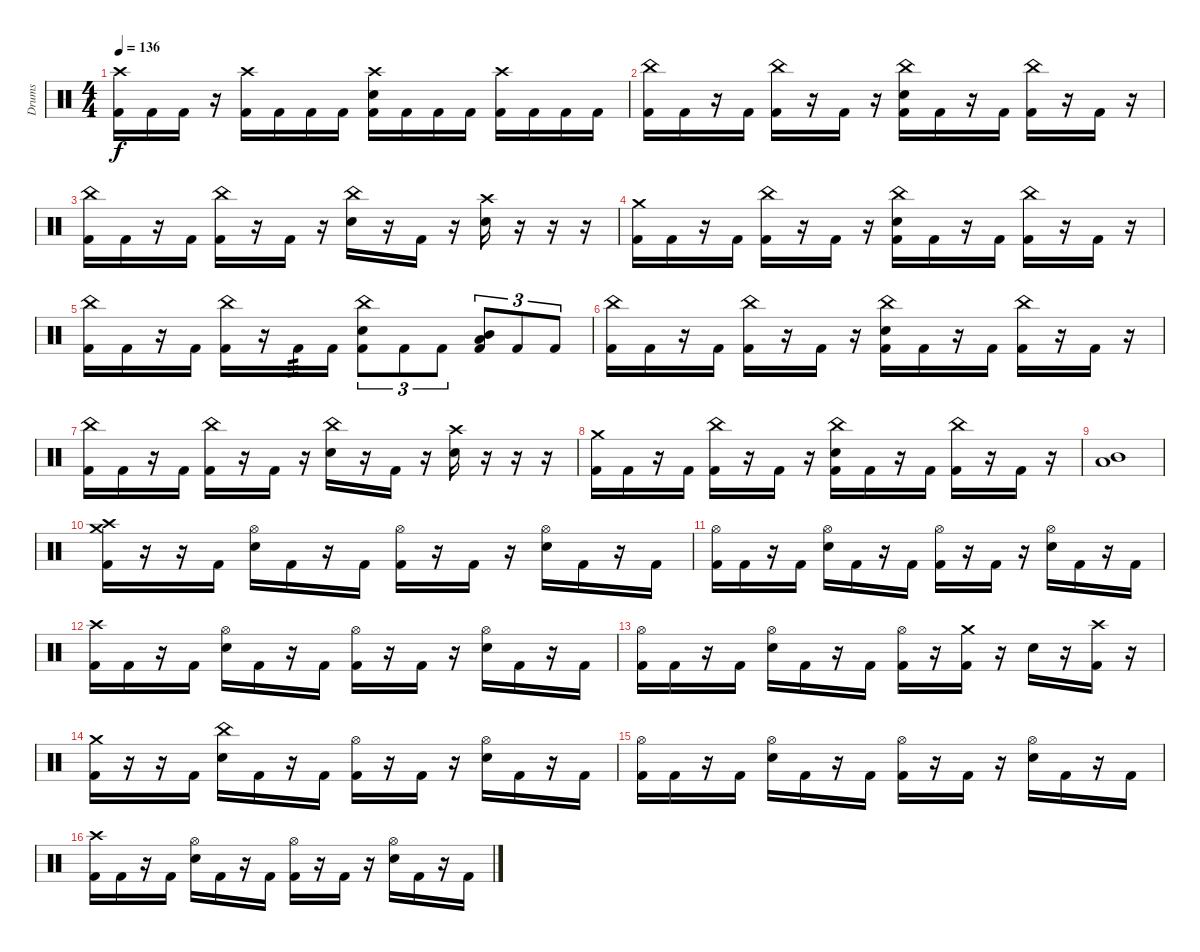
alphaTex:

\track ("Drums" "Drums") {instrument percussion}
\staff {score}
\articulation defaults
\ts (4 4)
\tempo 136
\clef neutral
\ks c
("Crash high (hit)" "Kick (hit) 2").16{dy f} "Kick (hit) 2".16 "Kick (hit) 2".16 r.16 ("Crash high (hit)" "Kick (hit) 2").16 "Kick (hit) 2".16 "Kick (hit) 2".16 "Kick (hit) 2".16 ("Crash high (hit)" "Snare (hit) 2" "Kick (hit) 2").16 "Kick (hit) 2".16 "Kick (hit) 2".16 "Kick (hit) 2".16 ("Crash high (hit)" "Kick (hit) 2").16 "Kick (hit) 2".16 "Kick (hit) 2".16 "Kick (hit) 2".16 |
("China (hit)" "Kick (hit) 2").16 "Kick (hit) 2".16 r.16 "Kick (hit) 2".16 ("China (hit)" "Kick (hit) 2").16 r.16 "Kick (hit) 2".16 r.16 ("China (hit)" "Snare (hit) 2" "Kick (hit) 2").16 "Kick (hit) 2".16 r.16 "Kick (hit) 2".16 ("China (hit)" "Kick (hit) 2").16 r.16 "Kick (hit) 2".16 r.16 |
("China (hit)" "Kick (hit) 2").16 "Kick (hit) 2".16 r.16 "Kick (hit) 2".16 ("China (hit)" "Kick (hit) 2").16 r.16 "Kick (hit) 2".16 r.16 ("China (hit)" "Snare (hit) 2").16 r.16 "Kick (hit) 2".16 r.16 ("Crash high (hit)" "Snare (hit) 2").16 r.16 r.16 r.16 |
("Crash medium (hit)" "Kick (hit) 2").16 "Kick (hit) 2".16 r.16 "Kick (hit) 2".16 ("China (hit)" "Kick (hit) 2").16 r.16 "Kick (hit) 2".16 r.16 ("China (hit)" "Snare (hit) 2" "Kick (hit) 2").16 "Kick (hit) 2".16 r.16 "Kick (hit) 2".16 ("China (hit)" "Kick (hit) 2").16 r.16 "Kick (hit) 2".16 r.16 |
("China (hit)" "Kick (hit) 2").16 "Kick (hit) 2".16 r.16 "Kick (hit) 2".16 ("China (hit)" "Kick (hit) 2").16 r.16 "Kick (hit) 2".16{tp 3} "Kick (hit) 2".16 ("China (hit)" "Snare (hit) 2" "Kick (hit) 2").8{tu (3 2)} "Kick (hit) 2".8{tu (3 2)} "Kick (hit) 2".8{tu (3 2)} ("Mid Tom (hit)" "Low Tom (hit)" "Kick (hit) 2").8{tu (3 2)} "Kick (hit) 2".8{tu (3 2)} "Kick (hit) 2".8{tu (3 2)} |
("China (hit)" "Kick (hit) 2").16 "Kick (hit) 2".16 r.16 "Kick (hit) 2".16 ("China (hit)" "Kick (hit) 2").16 r.16 "Kick (hit) 2".16 r.16 ("China (hit)" "Snare (hit) 2" "Kick (hit) 2").16 "Kick (hit) 2".16 r.16 "Kick (hit) 2".16 ("China (hit)" "Kick (hit) 2").16 r.16 "Kick (hit) 2".16 r.16 |
("China (hit)" "Kick (hit) 2").16 "Kick (hit) 2".16 r.16 "Kick (hit) 2".16 ("China (hit)" "Kick (hit) 2").16 r.16 "Kick (hit) 2".16 r.16 ("China (hit)" "Snare (hit) 2").16 r.16 "Kick (hit) 2".16 r.16 ("Crash high (hit)" "Snare (hit) 2").16 r.16 r.16 r.16 |
("Crash medium (hit)" "Kick (hit) 2").16 "Kick (hit) 2".16 r.16 "Kick (hit) 2".16 ("China (hit)" "Kick (hit) 2").16 r.16 "Kick (hit) 2".16 r.16 ("China (hit)" "Snare (hit) 2" "Kick (hit) 2").16 "Kick (hit) 2".16 r.16 "Kick (hit) 2".16 ("China (hit)" "Kick (hit) 2").16 r.16 "Kick (hit) 2".16 r.16 |
("Mid Tom (hit)" "Low Tom (hit)").1 |
("Crash high (hit)" "Crash medium (hit)" "Kick (hit) 2").16 r.16 r.16 "Kick (hit) 2".16 ("Hi-Hat (open)" "Snare (hit) 2").16 "Kick (hit) 2".16 r.16 "Kick (hit) 2".16 ("Hi-Hat (open)" "Kick (hit) 2").16 r.16 "Kick (hit) 2".16 r.16 ("Hi-Hat (open)" "Snare (hit) 2").16 "Kick (hit) 2".16 r.16 "Kick (hit) 2".16 |
("Hi-Hat (open)" "Kick (hit) 2").16 "Kick (hit) 2".16 r.16 "Kick (hit) 2".16 ("Hi-Hat (open)" "Snare (hit) 2").16 "Kick (hit) 2".16 r.16 "Kick (hit) 2".16 ("Hi-Hat (open)" "Kick (hit) 2").16 r.16 "Kick (hit) 2".16 r.16 ("Hi-Hat (open)" "Snare (hit) 2").16 "Kick (hit) 2".16 r.16 "Kick (hit) 2".16 |
("Crash high (hit)" "Kick (hit) 2").16 "Kick (hit) 2".16 r.16 "Kick (hit) 2".16 ("Hi-Hat (open)" "Snare (hit) 2").16 "Kick (hit) 2".16 r.16 "Kick (hit) 2".16 ("Hi-Hat (open)" "Kick (hit) 2").16 r.16 "Kick (hit) 2".16 r.16 ("Hi-Hat (open)" "Snare (hit) 2").16 "Kick (hit) 2".16 r.16 "Kick (hit) 2".16 |
("Hi-Hat (open)" "Kick (hit) 2").16 "Kick (hit) 2".16 r.16 "Kick (hit) 2".16 ("Hi-Hat (open)" "Snare (hit) 2").16 "Kick (hit) 2".16 r.16 "Kick (hit) 2".16 ("Hi-Hat (open)" "Kick (hit) 2").16 r.16 ("Crash medium (hit)" "Kick (hit) 2").16 r.16 "Snare (hit) 2".16 r.16 ("Crash high (hit)" "Kick (hit) 2").16 r.16 |
("Crash medium (hit)" "Kick (hit) 2").16 r.16 r.16 "Kick (hit) 2".16 ("China (hit)" "Snare (hit) 2").16 "Kick (hit) 2".16 r.16 "Kick (hit) 2".16 ("Hi-Hat (open)" "Kick (hit) 2").16 r.16 "Kick (hit) 2".16 r.16 ("Hi-Hat (open)" "Snare (hit) 2").16 "Kick (hit) 2".16 r.16 "Kick (hit) 2".16 |
("Hi-Hat (open)" "Kick (hit) 2").16 "Kick (hit) 2".16 r.16 "Kick (hit) 2".16 ("Hi-Hat (open)" "Snare (hit) 2").16 "Kick (hit) 2".16 r.16 "Kick (hit) 2".16 ("Hi-Hat (open)" "Kick (hit) 2").16 r.16 "Kick (hit) 2".16 r.16 ("Hi-Hat (open)" "Snare (hit) 2").16 "Kick (hit) 2".16 r.16 "Kick (hit) 2".16 |
("Crash high (hit)" "Kick (hit) 2").16 "Kick (hit) 2".16 r.16 "Kick (hit) 2".16 ("Hi-Hat (open)" "Snare (hit) 2").16 "Kick (hit) 2".16 r.16 "Kick (hit) 2".16 ("Hi-Hat (open)" "Kick (hit) 2").16 r.16 "Kick (hit) 2".16 r.16 ("Hi-Hat (open)" "Snare (hit) 2").16 "Kick (hit) 2".16 r.16 "Kick (hit) 2".16
